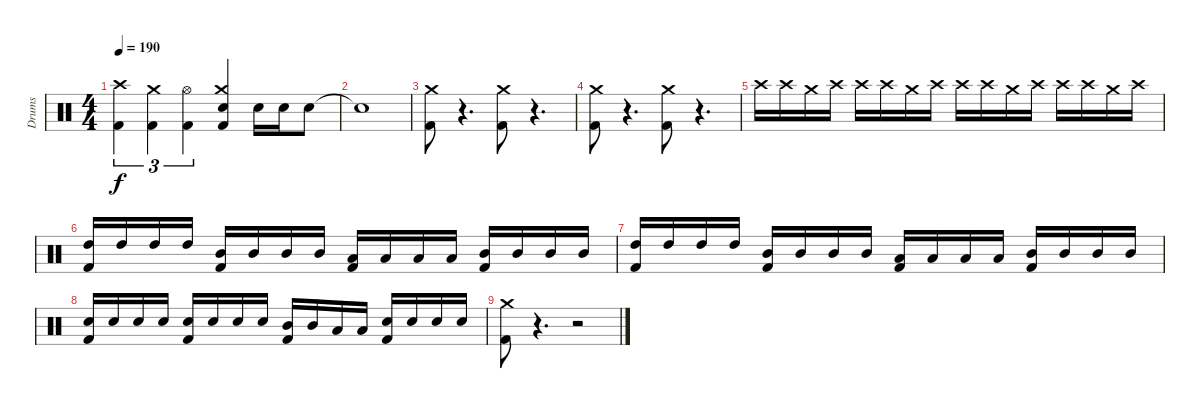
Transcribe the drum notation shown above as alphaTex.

\track ("Drums" "Drums") {instrument percussion}
\staff {score}
\articulation defaults
\ts (4 4)
\tempo 190
\clef neutral
\ks c
("Crash high (hit)" "Kick (hit) 2").4{tu (3 2) dy f} ("Crash medium (hit)" "Kick (hit) 2").4{tu (3 2)} ("Hi-Hat (open)" "Kick (hit) 2").4{tu (3 2)} ("Crash medium (hit)" "Electric Snare (hit)" "Kick (hit) 2").4 "Electric Snare (hit)".16 "Electric Snare (hit)".16 "Electric Snare (hit)".8 |
"Snare (hit)"{t}.1 |
("Crash medium (hit)" "Kick (hit) 2").8 r.4{d} ("Crash medium (hit)" "Kick (hit) 2").8 r.4{d} |
("Crash medium (hit)" "Kick (hit) 2").8 r.4{d} ("Crash medium (hit)" "Kick (hit) 2").8 r.4{d} |
"Crash high (hit)".16 "Crash high (hit)".16 "Crash medium (hit)".16 "Crash high (hit)".16 "Crash high (hit)".16 "Crash high (hit)".16 "Crash medium (hit)".16 "Crash high (hit)".16 "Crash high (hit)".16 "Crash high (hit)".16 "Crash medium (hit)".16 "Crash high (hit)".16 "Crash high (hit)".16 "Crash high (hit)".16 "Crash medium (hit)".16 "Crash high (hit)".16 |
("High Tom (hit)" "Kick (hit) 2").16 "High Tom (hit)".16 "High Tom (hit)".16 "High Tom (hit)".16 ("Mid Tom (hit)" "Kick (hit) 2").16 "Mid Tom (hit)".16 "Mid Tom (hit)".16 "Mid Tom (hit)".16 ("Low Tom (hit)" "Kick (hit) 2").16 "Low Tom (hit)".16 "Low Tom (hit)".16 "Low Tom (hit)".16 ("Mid Tom (hit)" "Kick (hit) 2").16 "Mid Tom (hit)".16 "Mid Tom (hit)".16 "Mid Tom (hit)".16 |
("High Tom (hit)" "Kick (hit) 2").16 "High Tom (hit)".16 "High Tom (hit)".16 "High Tom (hit)".16 ("Mid Tom (hit)" "Kick (hit) 2").16 "Mid Tom (hit)".16 "Mid Tom (hit)".16 "Mid Tom (hit)".16 ("Low Tom (hit)" "Kick (hit) 2").16 "Low Tom (hit)".16 "Low Tom (hit)".16 "Low Tom (hit)".16 ("Mid Tom (hit)" "Kick (hit) 2").16 "Mid Tom (hit)".16 "Mid Tom (hit)".16 "Mid Tom (hit)".16 |
("Electric Snare (hit)" "Kick (hit) 2").16 "Electric Snare (hit)".16 "Electric Snare (hit)".16 "Electric Snare (hit)".16 ("Electric Snare (hit)" "Kick (hit) 2").16 "Electric Snare (hit)".16 "Electric Snare (hit)".16 "Electric Snare (hit)".16 ("Mid Tom (hit)" "Kick (hit) 2").16 "Mid Tom (hit)".16 "Low Tom (hit)".16 "Low Tom (hit)".16 ("Electric Snare (hit)" "Kick (hit) 2").16 "Electric Snare (hit)".16 "Electric Snare (hit)".16 "Electric Snare (hit)".16 |
("Crash medium (hit)" "Kick (hit) 2").8 r.4{d} r.2
